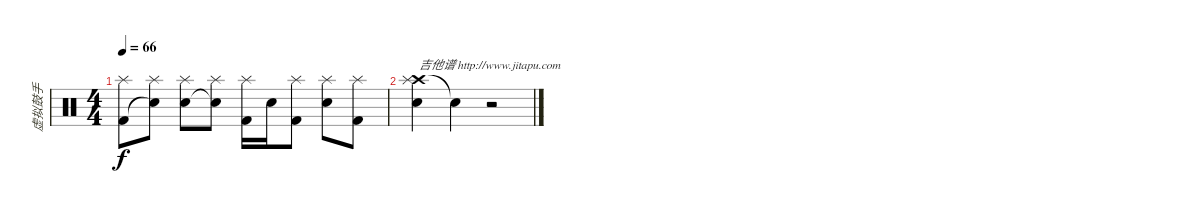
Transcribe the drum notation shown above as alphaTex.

\track ("虚拟鼓手" "虚拟鼓手") {instrument percussion}
\staff {score}
\articulation defaults
\ts (4 4)
\tempo 66
\clef neutral
\ks c
("Splash (hit)" "Kick (hit) 2").8{dy f} ("Splash (hit)" "Snare (hit)"{t}).8 ("Splash (hit)" "Electric Snare (hit)").8 ("Splash (hit)" "Snare (hit)"{t}).8 ("Splash (hit)" "Kick (hit) 2").16 "Electric Snare (hit)".16 ("Splash (hit)" "Kick (hit) 2").8 ("Splash (hit)" "Electric Snare (hit)").8 ("Splash (hit)" "Kick (hit) 2").8 |
("Crash high (hit)" "Splash (hit)" "Snare (hit)").4{txt "吉他谱 http://www.jitapu.com"} "Snare (hit)"{t}.4 r.2
